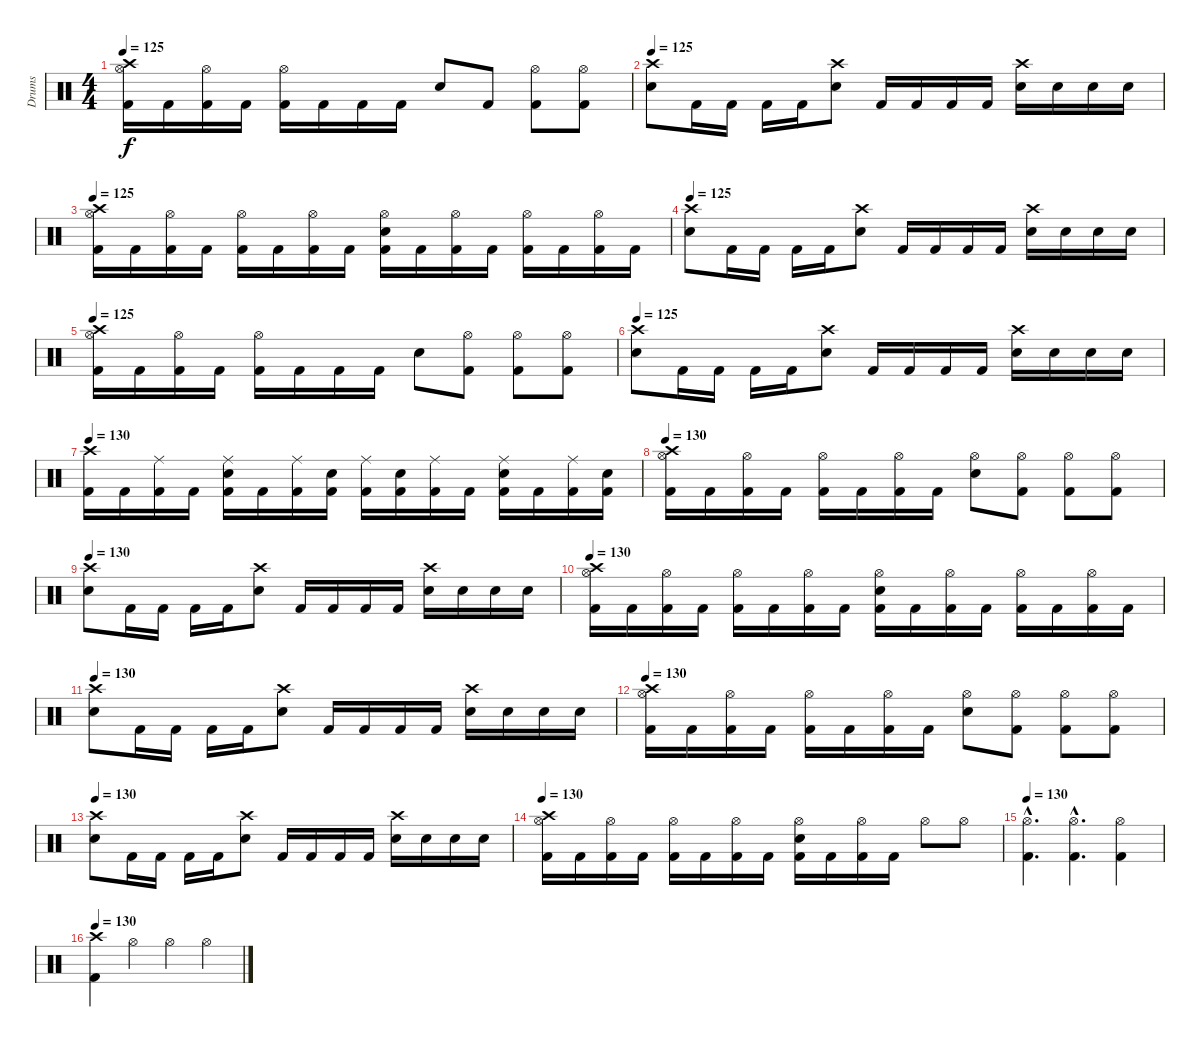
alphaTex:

\track ("Drums" "Drums") {instrument percussion}
\staff {score}
\articulation defaults
\ts (4 4)
\tempo 125
\clef neutral
\ks c
("Crash high (hit)" "Hi-Hat (open)" "Kick (hit) 2").16{dy f} "Kick (hit) 2".16 ("Hi-Hat (open)" "Kick (hit) 2").16 "Kick (hit) 2".16 ("Hi-Hat (open)" "Kick (hit) 2").16 "Kick (hit) 2".16 "Kick (hit) 2".16 "Kick (hit) 2".16 "Snare (hit) 2".8 "Kick (hit) 2".8 ("Hi-Hat (open)" "Kick (hit) 2").8 ("Hi-Hat (open)" "Kick (hit) 2").8 |
\tempo 125
("Crash high (hit)" "Snare (hit) 2").8 "Kick (hit) 2".16 "Kick (hit) 2".16 "Kick (hit) 2".16 "Kick (hit) 2".16 ("Crash high (hit)" "Snare (hit) 2").8 "Kick (hit) 2".16 "Kick (hit) 2".16 "Kick (hit) 2".16 "Kick (hit) 2".16 ("Crash high (hit)" "Snare (hit) 2").16 "Snare (hit) 2".16 "Snare (hit) 2".16 "Snare (hit) 2".16 |
\tempo 125
("Crash high (hit)" "Hi-Hat (open)" "Kick (hit) 2").16 "Kick (hit) 2".16 ("Hi-Hat (open)" "Kick (hit) 2").16 "Kick (hit) 2".16 ("Hi-Hat (open)" "Kick (hit) 2").16 "Kick (hit) 2".16 ("Hi-Hat (open)" "Kick (hit) 2").16 "Kick (hit) 2".16 ("Hi-Hat (open)" "Snare (hit) 2" "Kick (hit) 2").16 "Kick (hit) 2".16 ("Hi-Hat (open)" "Kick (hit) 2").16 "Kick (hit) 2".16 ("Hi-Hat (open)" "Kick (hit) 2").16 "Kick (hit) 2".16 ("Hi-Hat (open)" "Kick (hit) 2").16 "Kick (hit) 2".16 |
\tempo 125
("Crash high (hit)" "Snare (hit) 2").8 "Kick (hit) 2".16 "Kick (hit) 2".16 "Kick (hit) 2".16 "Kick (hit) 2".16 ("Crash high (hit)" "Snare (hit) 2").8 "Kick (hit) 2".16 "Kick (hit) 2".16 "Kick (hit) 2".16 "Kick (hit) 2".16 ("Crash high (hit)" "Snare (hit) 2").16 "Snare (hit) 2".16 "Snare (hit) 2".16 "Snare (hit) 2".16 |
\tempo 125
("Crash high (hit)" "Hi-Hat (open)" "Kick (hit) 2").16 "Kick (hit) 2".16 ("Hi-Hat (open)" "Kick (hit) 2").16 "Kick (hit) 2".16 ("Hi-Hat (open)" "Kick (hit) 2").16 "Kick (hit) 2".16 "Kick (hit) 2".16 "Kick (hit) 2".16 "Snare (hit) 2".8 ("Hi-Hat (open)" "Kick (hit) 2").8 ("Hi-Hat (open)" "Kick (hit) 2").8 ("Hi-Hat (open)" "Kick (hit) 2").8 |
\tempo 125
("Crash high (hit)" "Snare (hit) 2").8 "Kick (hit) 2".16 "Kick (hit) 2".16 "Kick (hit) 2".16 "Kick (hit) 2".16 ("Crash high (hit)" "Snare (hit) 2").8 "Kick (hit) 2".16 "Kick (hit) 2".16 "Kick (hit) 2".16 "Kick (hit) 2".16 ("Crash high (hit)" "Snare (hit) 2").16 "Snare (hit) 2".16 "Snare (hit) 2".16 "Snare (hit) 2".16 |
\tempo 130
("Crash high (hit)" "Kick (hit) 2").16 "Kick (hit) 2".16 ("Ride (middle)" "Kick (hit) 2").16 "Kick (hit) 2".16 ("Ride (middle)" "Snare (hit) 2" "Kick (hit) 2").16 "Kick (hit) 2".16 ("Ride (middle)" "Kick (hit) 2").16 ("Snare (hit) 2" "Kick (hit) 2").16 ("Ride (middle)" "Kick (hit) 2").16 ("Snare (hit) 2" "Kick (hit) 2").16 ("Ride (middle)" "Kick (hit) 2").16 "Kick (hit) 2".16 ("Ride (middle)" "Snare (hit) 2" "Kick (hit) 2").16 "Kick (hit) 2".16 ("Ride (middle)" "Kick (hit) 2").16 ("Snare (hit) 2" "Kick (hit) 2").16 |
\tempo 130
("Crash high (hit)" "Hi-Hat (open)" "Kick (hit) 2").16 "Kick (hit) 2".16 ("Hi-Hat (open)" "Kick (hit) 2").16 "Kick (hit) 2".16 ("Hi-Hat (open)" "Kick (hit) 2").16 "Kick (hit) 2".16 ("Hi-Hat (open)" "Kick (hit) 2").16 "Kick (hit) 2".16 ("Hi-Hat (open)" "Snare (hit) 2").8 ("Hi-Hat (open)" "Kick (hit) 2").8 ("Hi-Hat (open)" "Kick (hit) 2").8 ("Hi-Hat (open)" "Kick (hit) 2").8 |
\tempo 130
("Crash high (hit)" "Snare (hit) 2").8 "Kick (hit) 2".16 "Kick (hit) 2".16 "Kick (hit) 2".16 "Kick (hit) 2".16 ("Crash high (hit)" "Snare (hit) 2").8 "Kick (hit) 2".16 "Kick (hit) 2".16 "Kick (hit) 2".16 "Kick (hit) 2".16 ("Crash high (hit)" "Snare (hit) 2").16 "Snare (hit) 2".16 "Snare (hit) 2".16 "Snare (hit) 2".16 |
\tempo 130
("Crash high (hit)" "Hi-Hat (open)" "Kick (hit) 2").16 "Kick (hit) 2".16 ("Hi-Hat (open)" "Kick (hit) 2").16 "Kick (hit) 2".16 ("Hi-Hat (open)" "Kick (hit) 2").16 "Kick (hit) 2".16 ("Hi-Hat (open)" "Kick (hit) 2").16 "Kick (hit) 2".16 ("Hi-Hat (open)" "Snare (hit) 2" "Kick (hit) 2").16 "Kick (hit) 2".16 ("Hi-Hat (open)" "Kick (hit) 2").16 "Kick (hit) 2".16 ("Hi-Hat (open)" "Kick (hit) 2").16 "Kick (hit) 2".16 ("Hi-Hat (open)" "Kick (hit) 2").16 "Kick (hit) 2".16 |
\tempo 130
("Crash high (hit)" "Snare (hit) 2").8 "Kick (hit) 2".16 "Kick (hit) 2".16 "Kick (hit) 2".16 "Kick (hit) 2".16 ("Crash high (hit)" "Snare (hit) 2").8 "Kick (hit) 2".16 "Kick (hit) 2".16 "Kick (hit) 2".16 "Kick (hit) 2".16 ("Crash high (hit)" "Snare (hit) 2").16 "Snare (hit) 2".16 "Snare (hit) 2".16 "Snare (hit) 2".16 |
\tempo 130
("Crash high (hit)" "Hi-Hat (open)" "Kick (hit) 2").16 "Kick (hit) 2".16 ("Hi-Hat (open)" "Kick (hit) 2").16 "Kick (hit) 2".16 ("Hi-Hat (open)" "Kick (hit) 2").16 "Kick (hit) 2".16 ("Hi-Hat (open)" "Kick (hit) 2").16 "Kick (hit) 2".16 ("Hi-Hat (open)" "Snare (hit) 2").8 ("Hi-Hat (open)" "Kick (hit) 2").8 ("Hi-Hat (open)" "Kick (hit) 2").8 ("Hi-Hat (open)" "Kick (hit) 2").8 |
\tempo 130
("Crash high (hit)" "Snare (hit) 2").8 "Kick (hit) 2".16 "Kick (hit) 2".16 "Kick (hit) 2".16 "Kick (hit) 2".16 ("Crash high (hit)" "Snare (hit) 2").8 "Kick (hit) 2".16 "Kick (hit) 2".16 "Kick (hit) 2".16 "Kick (hit) 2".16 ("Crash high (hit)" "Snare (hit) 2").16 "Snare (hit) 2".16 "Snare (hit) 2".16 "Snare (hit) 2".16 |
\tempo 130
("Crash high (hit)" "Hi-Hat (open)" "Kick (hit) 2").16 "Kick (hit) 2".16 ("Hi-Hat (open)" "Kick (hit) 2").16 "Kick (hit) 2".16 ("Hi-Hat (open)" "Kick (hit) 2").16 "Kick (hit) 2".16 ("Hi-Hat (open)" "Kick (hit) 2").16 "Kick (hit) 2".16 ("Hi-Hat (open)" "Snare (hit) 2" "Kick (hit) 2").16 "Kick (hit) 2".16 ("Hi-Hat (open)" "Kick (hit) 2").16 "Kick (hit) 2".16 "Hi-Hat (open)".8 "Hi-Hat (open)".8 |
\tempo 130
("Hi-Hat (open)"{hac} "Kick (hit) 2"{hac}).4{d} ("Hi-Hat (open)"{hac} "Kick (hit) 2"{hac}).4{d} ("Hi-Hat (open)" "Kick (hit) 2").4 |
\tempo 130
("Crash high (hit)" "Kick (hit) 2").4 "Hi-Hat (open)".4 "Hi-Hat (open)".4 "Hi-Hat (open)".4
